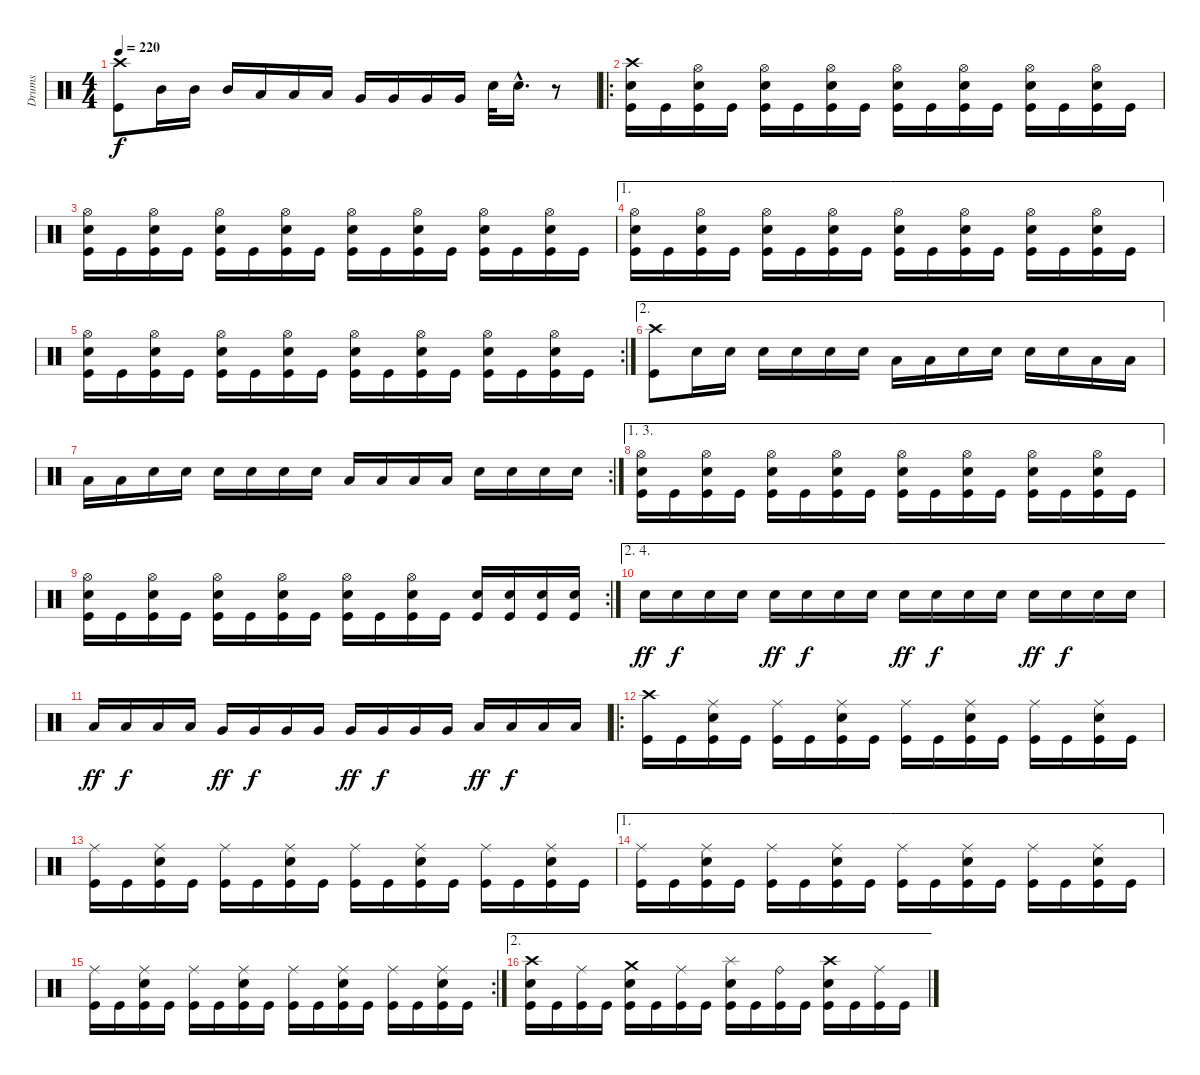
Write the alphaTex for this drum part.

\track ("Drums" "Drums") {instrument percussion}
\staff {score}
\articulation defaults
\ts (4 4)
\tempo 220
\clef neutral
\ks c
("Crash high (hit)" "Kick (hit)").8{dy f} "Mid Tom (hit)".16 "Mid Tom (hit)".16 "Mid Tom (hit)".16 "Low Tom (hit)".16 "Low Tom (hit)".16 "Low Tom (hit)".16 "Very Low Tom (hit)".16 "Very Low Tom (hit)".16 "Very Low Tom (hit)".16 "Very Low Tom (hit)".16 "Electric Snare (hit)".32 "Electric Snare (hit)"{hac}.16{d} r.8 |
\ro
("Crash high (hit)" "Electric Snare (hit)" "Kick (hit)").16 "Kick (hit)".16 ("Hi-Hat (open)" "Electric Snare (hit)" "Kick (hit)").16 "Kick (hit)".16 ("Hi-Hat (open)" "Electric Snare (hit)" "Kick (hit)").16 "Kick (hit)".16 ("Hi-Hat (open)" "Electric Snare (hit)" "Kick (hit)").16 "Kick (hit)".16 ("Hi-Hat (open)" "Electric Snare (hit)" "Kick (hit)").16 "Kick (hit)".16 ("Hi-Hat (open)" "Electric Snare (hit)" "Kick (hit)").16 "Kick (hit)".16 ("Hi-Hat (open)" "Electric Snare (hit)" "Kick (hit)").16 "Kick (hit)".16 ("Hi-Hat (open)" "Electric Snare (hit)" "Kick (hit)").16 "Kick (hit)".16 |
("Hi-Hat (open)" "Electric Snare (hit)" "Kick (hit)").16 "Kick (hit)".16 ("Hi-Hat (open)" "Electric Snare (hit)" "Kick (hit)").16 "Kick (hit)".16 ("Hi-Hat (open)" "Electric Snare (hit)" "Kick (hit)").16 "Kick (hit)".16 ("Hi-Hat (open)" "Electric Snare (hit)" "Kick (hit)").16 "Kick (hit)".16 ("Hi-Hat (open)" "Electric Snare (hit)" "Kick (hit)").16 "Kick (hit)".16 ("Hi-Hat (open)" "Electric Snare (hit)" "Kick (hit)").16 "Kick (hit)".16 ("Hi-Hat (open)" "Electric Snare (hit)" "Kick (hit)").16 "Kick (hit)".16 ("Hi-Hat (open)" "Electric Snare (hit)" "Kick (hit)").16 "Kick (hit)".16 |
\ae 1
("Hi-Hat (open)" "Electric Snare (hit)" "Kick (hit)").16 "Kick (hit)".16 ("Hi-Hat (open)" "Electric Snare (hit)" "Kick (hit)").16 "Kick (hit)".16 ("Hi-Hat (open)" "Electric Snare (hit)" "Kick (hit)").16 "Kick (hit)".16 ("Hi-Hat (open)" "Electric Snare (hit)" "Kick (hit)").16 "Kick (hit)".16 ("Hi-Hat (open)" "Electric Snare (hit)" "Kick (hit)").16 "Kick (hit)".16 ("Hi-Hat (open)" "Electric Snare (hit)" "Kick (hit)").16 "Kick (hit)".16 ("Hi-Hat (open)" "Electric Snare (hit)" "Kick (hit)").16 "Kick (hit)".16 ("Hi-Hat (open)" "Electric Snare (hit)" "Kick (hit)").16 "Kick (hit)".16 |
\rc 2
("Hi-Hat (open)" "Electric Snare (hit)" "Kick (hit)").16 "Kick (hit)".16 ("Hi-Hat (open)" "Electric Snare (hit)" "Kick (hit)").16 "Kick (hit)".16 ("Hi-Hat (open)" "Electric Snare (hit)" "Kick (hit)").16 "Kick (hit)".16 ("Hi-Hat (open)" "Electric Snare (hit)" "Kick (hit)").16 "Kick (hit)".16 ("Hi-Hat (open)" "Electric Snare (hit)" "Kick (hit)").16 "Kick (hit)".16 ("Hi-Hat (open)" "Electric Snare (hit)" "Kick (hit)").16 "Kick (hit)".16 ("Hi-Hat (open)" "Electric Snare (hit)" "Kick (hit)").16 "Kick (hit)".16 ("Hi-Hat (open)" "Electric Snare (hit)" "Kick (hit)").16 "Kick (hit)".16 |
\ae 2
("Crash high (hit)" "Kick (hit)").8 "Electric Snare (hit)".16 "Electric Snare (hit)".16 "Electric Snare (hit)".16 "Electric Snare (hit)".16 "Electric Snare (hit)".16 "Electric Snare (hit)".16 "Low Tom (hit)".16 "Low Tom (hit)".16 "Electric Snare (hit)".16 "Electric Snare (hit)".16 "Electric Snare (hit)".16 "Electric Snare (hit)".16 "Low Tom (hit)".16 "Low Tom (hit)".16 |
\rc 2 "Low Tom (hit)".16 "Low Tom (hit)".16 "Electric Snare (hit)".16 "Electric Snare (hit)".16 "Electric Snare (hit)".16 "Electric Snare (hit)".16 "Electric Snare (hit)".16 "Electric Snare (hit)".16 "Low Tom (hit)".16 "Low Tom (hit)".16 "Low Tom (hit)".16 "Low Tom (hit)".16 "Electric Snare (hit)".16 "Electric Snare (hit)".16 "Electric Snare (hit)".16 "Electric Snare (hit)".16
|
\ae (1 3)
("Hi-Hat (open)" "Electric Snare (hit)" "Kick (hit)").16 "Kick (hit)".16 ("Hi-Hat (open)" "Electric Snare (hit)" "Kick (hit)").16 "Kick (hit)".16 ("Hi-Hat (open)" "Electric Snare (hit)" "Kick (hit)").16 "Kick (hit)".16 ("Hi-Hat (open)" "Electric Snare (hit)" "Kick (hit)").16 "Kick (hit)".16 ("Hi-Hat (open)" "Electric Snare (hit)" "Kick (hit)").16 "Kick (hit)".16 ("Hi-Hat (open)" "Electric Snare (hit)" "Kick (hit)").16 "Kick (hit)".16 ("Hi-Hat (open)" "Electric Snare (hit)" "Kick (hit)").16 "Kick (hit)".16 ("Hi-Hat (open)" "Electric Snare (hit)" "Kick (hit)").16 "Kick (hit)".16 |
\rc 2
("Hi-Hat (open)" "Electric Snare (hit)" "Kick (hit)").16 "Kick (hit)".16 ("Hi-Hat (open)" "Electric Snare (hit)" "Kick (hit)").16 "Kick (hit)".16 ("Hi-Hat (open)" "Electric Snare (hit)" "Kick (hit)").16 "Kick (hit)".16 ("Hi-Hat (open)" "Electric Snare (hit)" "Kick (hit)").16 "Kick (hit)".16 ("Hi-Hat (open)" "Electric Snare (hit)" "Kick (hit)").16 "Kick (hit)".16 ("Hi-Hat (open)" "Electric Snare (hit)" "Kick (hit)").16 "Kick (hit)".16 ("Electric Snare (hit)" "Kick (hit)").16 ("Electric Snare (hit)" "Kick (hit)").16 ("Electric Snare (hit)" "Kick (hit)").16 ("Electric Snare (hit)" "Kick (hit)").16 |
\ae (2 4)
"Electric Snare (hit)".16{dy ff} "Electric Snare (hit)".16{dy f} "Electric Snare (hit)".16 "Electric Snare (hit)".16 "Electric Snare (hit)".16{dy ff} "Electric Snare (hit)".16{dy f} "Electric Snare (hit)".16 "Electric Snare (hit)".16 "Electric Snare (hit)".16{dy ff} "Electric Snare (hit)".16{dy f} "Electric Snare (hit)".16 "Electric Snare (hit)".16 "Electric Snare (hit)".16{dy ff} "Electric Snare (hit)".16{dy f} "Electric Snare (hit)".16 "Electric Snare (hit)".16 |
"Low Tom (hit)".16{dy ff} "Low Tom (hit)".16{dy f} "Low Tom (hit)".16 "Low Tom (hit)".16 "Very Low Tom (hit)".16{dy ff} "Very Low Tom (hit)".16{dy f} "Very Low Tom (hit)".16 "Very Low Tom (hit)".16 "Very Low Tom (hit)".16{dy ff} "Very Low Tom (hit)".16{dy f} "Very Low Tom (hit)".16 "Very Low Tom (hit)".16 "Low Floor Tom (hit)".16{dy ff} "Low Floor Tom (hit)".16{dy f} "Low Floor Tom (hit)".16 "Low Floor Tom (hit)".16 |
\ro
("Crash high (hit)" "Kick (hit)").16 "Kick (hit)".16 ("Ride (middle)" "Electric Snare (hit)" "Kick (hit)").16 "Kick (hit)".16 ("Ride (middle)" "Kick (hit)").16 "Kick (hit)".16 ("Ride (middle)" "Electric Snare (hit)" "Kick (hit)").16 "Kick (hit)".16 ("Ride (middle)" "Kick (hit)").16 "Kick (hit)".16 ("Ride (middle)" "Electric Snare (hit)" "Kick (hit)").16 "Kick (hit)".16 ("Ride (middle)" "Kick (hit)").16 "Kick (hit)".16 ("Ride (middle)" "Electric Snare (hit)" "Kick (hit)").16 "Kick (hit)".16 |
("Ride (middle)" "Kick (hit)").16 "Kick (hit)".16 ("Ride (middle)" "Electric Snare (hit)" "Kick (hit)").16 "Kick (hit)".16 ("Ride (middle)" "Kick (hit)").16 "Kick (hit)".16 ("Ride (middle)" "Electric Snare (hit)" "Kick (hit)").16 "Kick (hit)".16 ("Ride (middle)" "Kick (hit)").16 "Kick (hit)".16 ("Ride (middle)" "Electric Snare (hit)" "Kick (hit)").16 "Kick (hit)".16 ("Ride (middle)" "Kick (hit)").16 "Kick (hit)".16 ("Ride (middle)" "Electric Snare (hit)" "Kick (hit)").16 "Kick (hit)".16 |
\ae 1
("Ride (middle)" "Kick (hit)").16 "Kick (hit)".16 ("Ride (middle)" "Electric Snare (hit)" "Kick (hit)").16 "Kick (hit)".16 ("Ride (middle)" "Kick (hit)").16 "Kick (hit)".16 ("Ride (middle)" "Electric Snare (hit)" "Kick (hit)").16 "Kick (hit)".16 ("Ride (middle)" "Kick (hit)").16 "Kick (hit)".16 ("Ride (middle)" "Electric Snare (hit)" "Kick (hit)").16 "Kick (hit)".16 ("Ride (middle)" "Kick (hit)").16 "Kick (hit)".16 ("Ride (middle)" "Electric Snare (hit)" "Kick (hit)").16 "Kick (hit)".16 |
\rc 2
("Ride (middle)" "Kick (hit)").16 "Kick (hit)".16 ("Ride (middle)" "Electric Snare (hit)" "Kick (hit)").16 "Kick (hit)".16 ("Ride (middle)" "Kick (hit)").16 "Kick (hit)".16 ("Ride (middle)" "Electric Snare (hit)" "Kick (hit)").16 "Kick (hit)".16 ("Ride (middle)" "Kick (hit)").16 "Kick (hit)".16 ("Ride (middle)" "Electric Snare (hit)" "Kick (hit)").16 "Kick (hit)".16 ("Ride (middle)" "Kick (hit)").16 "Kick (hit)".16 ("Ride (middle)" "Electric Snare (hit)" "Kick (hit)").16 "Kick (hit)".16 |
\ae 2
("Crash high (hit)" "Electric Snare (hit)" "Kick (hit)").16 "Kick (hit)".16 ("Ride (middle)" "Kick (hit)").16 "Kick (hit)".16 ("Crash medium (hit)" "Electric Snare (hit)" "Kick (hit)").16 "Kick (hit)".16 ("Ride (middle)" "Kick (hit)").16 "Kick (hit)".16 ("Splash (hit)" "Electric Snare (hit)" "Kick (hit)").16 "Kick (hit)".16 ("Ride (bell)" "Kick (hit)").16 "Kick (hit)".16 ("Crash high (hit)" "Electric Snare (hit)" "Kick (hit)").16 "Kick (hit)".16 ("Ride (middle)" "Kick (hit)").16 "Kick (hit)".16
